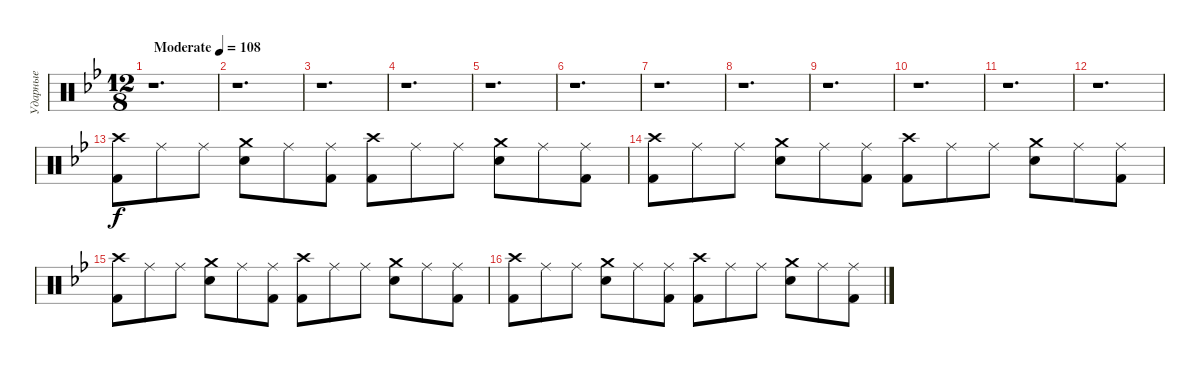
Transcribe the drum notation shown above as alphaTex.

\track ("Ударные" "Ударные") {instrument percussion}
\staff {score}
\articulation defaults
\ts (12 8)
\tempo (108 "Moderate")
\clef neutral
\ks gminor
r.1{d dy f} |
r.1{d} |
r.1{d} |
r.1{d} |
r.1{d} |
r.1{d} |
r.1{d} |
r.1{d} |
r.1{d} |
r.1{d} |
r.1{d} |
r.1{d} |
("Crash high (hit)" "Kick (hit) 2").8 "Ride (middle)".8 "Ride (middle)".8 ("Crash medium (hit)" "Electric Snare (hit)").8 "Ride (middle)".8 ("Ride (middle)" "Kick (hit) 2").8 ("Crash high (hit)" "Kick (hit) 2").8 "Ride (middle)".8 "Ride (middle)".8 ("Crash medium (hit)" "Electric Snare (hit)").8 "Ride (middle)".8 ("Ride (middle)" "Kick (hit) 2").8 |
("Crash high (hit)" "Kick (hit) 2").8 "Ride (middle)".8 "Ride (middle)".8 ("Crash medium (hit)" "Electric Snare (hit)").8 "Ride (middle)".8 ("Ride (middle)" "Kick (hit) 2").8 ("Crash high (hit)" "Kick (hit) 2").8 "Ride (middle)".8 "Ride (middle)".8 ("Crash medium (hit)" "Electric Snare (hit)").8 "Ride (middle)".8 ("Ride (middle)" "Kick (hit) 2").8 |
("Crash high (hit)" "Kick (hit) 2").8 "Ride (middle)".8 "Ride (middle)".8 ("Crash medium (hit)" "Electric Snare (hit)").8 "Ride (middle)".8 ("Ride (middle)" "Kick (hit) 2").8 ("Crash high (hit)" "Kick (hit) 2").8 "Ride (middle)".8 "Ride (middle)".8 ("Crash medium (hit)" "Electric Snare (hit)").8 "Ride (middle)".8 ("Ride (middle)" "Kick (hit) 2").8 |
("Crash high (hit)" "Kick (hit) 2").8 "Ride (middle)".8 "Ride (middle)".8 ("Crash medium (hit)" "Electric Snare (hit)").8 "Ride (middle)".8 ("Ride (middle)" "Kick (hit) 2").8 ("Crash high (hit)" "Kick (hit) 2").8 "Ride (middle)".8 "Ride (middle)".8 ("Crash medium (hit)" "Electric Snare (hit)").8 "Ride (middle)".8 ("Ride (middle)" "Kick (hit) 2").8
